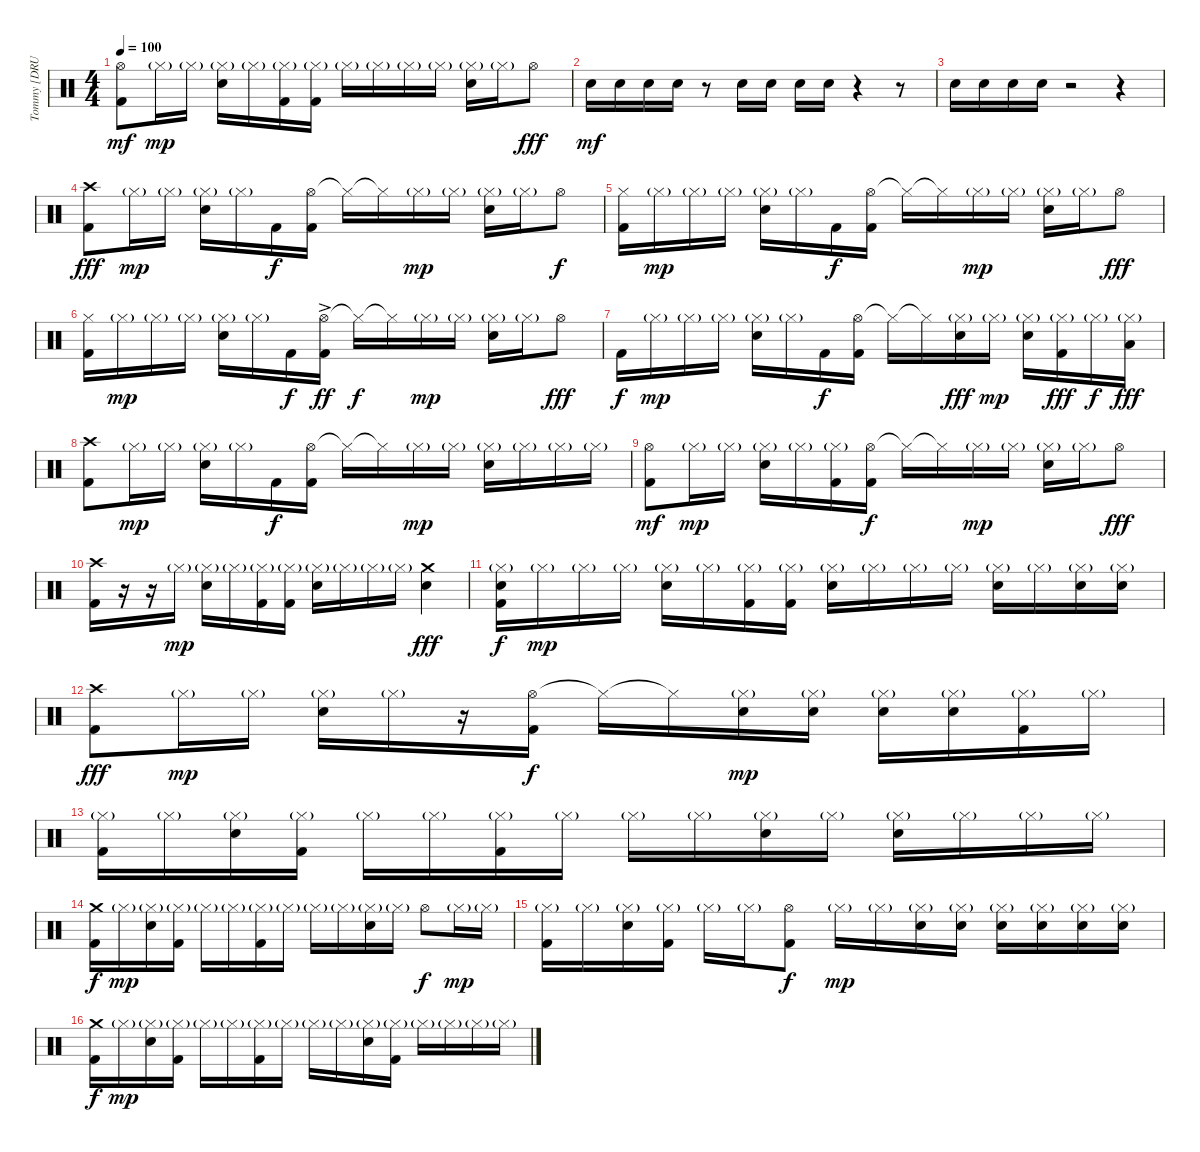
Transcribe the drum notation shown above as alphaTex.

\track ("Tommy [DRUMS]" "Tommy [DRU") {instrument percussion}
\staff {score}
\articulation defaults
\ts (4 4)
\tempo 100
\clef neutral
\ks c
("Hi-Hat (open)" "Kick (hit) 2").8{dy mf} "Hi-Hat (closed)"{g}.16{dy mp} "Hi-Hat (closed)"{g}.16 ("Hi-Hat (closed)"{g} "Snare (hit) 2").16 "Hi-Hat (closed)"{g}.16 ("Hi-Hat (closed)"{g} "Kick (hit) 2").16 ("Hi-Hat (closed)"{g} "Kick (hit) 2").16 "Hi-Hat (closed)"{g}.16 "Hi-Hat (closed)"{g}.16 "Hi-Hat (closed)"{g}.16 "Hi-Hat (closed)"{g}.16 ("Hi-Hat (closed)"{g} "Snare (hit) 2").16 "Hi-Hat (closed)"{g}.16 "Hi-Hat (open)".8{dy fff} |
"Snare (hit) 2".16{dy mf} "Snare (hit) 2".16 "Snare (hit) 2".16 "Snare (hit) 2".16 r.8 "Snare (hit) 2".16 "Snare (hit) 2".16 "Snare (hit) 2".16 "Snare (hit) 2".16 r.4 r.8 |
"Snare (hit) 2".16 "Snare (hit) 2".16 "Snare (hit) 2".16 "Snare (hit) 2".16 r.2 r.4 |
("Crash high (hit)" "Kick (hit) 2").8{dy fff} "Hi-Hat (closed)"{g}.16{dy mp} "Hi-Hat (closed)"{g}.16 ("Hi-Hat (closed)"{g} "Snare (hit) 2").16 "Hi-Hat (closed)"{g}.16 "Kick (hit) 2".16{dy f} ("Hi-Hat (open)" "Kick (hit) 2").16 "Hi-Hat (closed)"{t}.16 "Hi-Hat (closed)"{t}.16 "Hi-Hat (closed)"{g}.16{dy mp} "Hi-Hat (closed)"{g}.16 ("Hi-Hat (closed)"{g} "Snare (hit) 2").16 "Hi-Hat (closed)"{g}.16 "Hi-Hat (open)".8{dy f} |
("Hi-Hat (closed)" "Kick (hit) 2").16 "Hi-Hat (closed)"{g}.16{dy mp} "Hi-Hat (closed)"{g}.16 "Hi-Hat (closed)"{g}.16 ("Hi-Hat (closed)"{g} "Snare (hit) 2").16 "Hi-Hat (closed)"{g}.16 "Kick (hit) 2".16{dy f} ("Hi-Hat (open)" "Kick (hit) 2").16 "Hi-Hat (closed)"{t}.16 "Hi-Hat (closed)"{t}.16 "Hi-Hat (closed)"{g}.16{dy mp} "Hi-Hat (closed)"{g}.16 ("Hi-Hat (closed)"{g} "Snare (hit) 2").16 "Hi-Hat (closed)"{g}.16 "Hi-Hat (open)".8{dy fff} |
("Hi-Hat (closed)" "Kick (hit) 2").16 "Hi-Hat (closed)"{g}.16{dy mp} "Hi-Hat (closed)"{g}.16 "Hi-Hat (closed)"{g}.16 ("Hi-Hat (closed)"{g} "Snare (hit) 2").16 "Hi-Hat (closed)"{g}.16 "Kick (hit) 2".16{dy f} ("Hi-Hat (open)"{ac} "Kick (hit) 2").16{dy ff} "Hi-Hat (closed)"{t}.16{dy f} "Hi-Hat (closed)"{t}.16 "Hi-Hat (closed)"{g}.16{dy mp} "Hi-Hat (closed)"{g}.16 ("Hi-Hat (closed)"{g} "Snare (hit) 2").16 "Hi-Hat (closed)"{g}.16 "Hi-Hat (open)".8{dy fff} |
"Kick (hit) 2".16{dy f} "Hi-Hat (closed)"{g}.16{dy mp} "Hi-Hat (closed)"{g}.16 "Hi-Hat (closed)"{g}.16 ("Hi-Hat (closed)"{g} "Snare (hit) 2").16 "Hi-Hat (closed)"{g}.16 "Kick (hit) 2".16{dy f} ("Hi-Hat (open)" "Kick (hit) 2").16 "Hi-Hat (closed)"{t}.16 "Hi-Hat (closed)"{t}.16 ("Hi-Hat (closed)"{g} "Snare (hit) 2").16{dy fff} "Hi-Hat (closed)"{g}.16{dy mp} ("Hi-Hat (closed)"{g} "Snare (hit) 2").16 ("Hi-Hat (closed)"{g} "Kick (hit) 2").16{dy fff} "Hi-Hat (closed)"{g}.16{dy f} ("Hi-Hat (closed)"{g} "Low Tom (hit)").16{dy fff} |
("Crash high (hit)" "Kick (hit) 2").8 "Hi-Hat (closed)"{g}.16{dy mp} "Hi-Hat (closed)"{g}.16 ("Hi-Hat (closed)"{g} "Snare (hit) 2").16 "Hi-Hat (closed)"{g}.16 "Kick (hit) 2".16{dy f} ("Hi-Hat (open)" "Kick (hit) 2").16 "Hi-Hat (closed)"{t}.16 "Hi-Hat (closed)"{t}.16 "Hi-Hat (closed)"{g}.16{dy mp} "Hi-Hat (closed)"{g}.16 ("Hi-Hat (closed)"{g} "Snare (hit) 2").16 "Hi-Hat (closed)"{g}.16 "Hi-Hat (closed)"{g}.16 "Hi-Hat (closed)"{g}.16 |
("Hi-Hat (open)" "Kick (hit) 2").8{dy mf} "Hi-Hat (closed)"{g}.16{dy mp} "Hi-Hat (closed)"{g}.16 ("Hi-Hat (closed)"{g} "Snare (hit) 2").16 "Hi-Hat (closed)"{g}.16 ("Hi-Hat (closed)"{g} "Kick (hit) 2").16 ("Hi-Hat (open)" "Kick (hit) 2").16{dy f} "Hi-Hat (closed)"{t}.16 "Hi-Hat (closed)"{t}.16 "Hi-Hat (closed)"{g}.16{dy mp} "Hi-Hat (closed)"{g}.16 ("Hi-Hat (closed)"{g} "Snare (hit) 2").16 "Hi-Hat (closed)"{g}.16 "Hi-Hat (open)".8{dy fff} |
("Crash high (hit)" "Kick (hit) 2").16 r.16 r.16 "Hi-Hat (closed)"{g}.16{dy mp} ("Hi-Hat (closed)"{g} "Snare (hit) 2").16 "Hi-Hat (closed)"{g}.16 ("Hi-Hat (closed)"{g} "Kick (hit) 2").16 ("Hi-Hat (closed)"{g} "Kick (hit) 2").16 ("Hi-Hat (closed)"{g} "Snare (hit) 2").16 "Hi-Hat (closed)"{g}.16 "Hi-Hat (closed)"{g}.16 "Hi-Hat (closed)"{g}.16 ("Crash medium (hit)" "Snare (hit) 2").4{dy fff} |
("Hi-Hat (closed)"{g} "Snare (hit) 2" "Kick (hit) 2").16{dy f} "Hi-Hat (closed)"{g}.16{dy mp} "Hi-Hat (closed)"{g}.16 "Hi-Hat (closed)"{g}.16 ("Hi-Hat (closed)"{g} "Snare (hit) 2").16 "Hi-Hat (closed)"{g}.16 ("Hi-Hat (closed)"{g} "Kick (hit) 2").16 ("Hi-Hat (closed)"{g} "Kick (hit) 2").16 ("Hi-Hat (closed)"{g} "Snare (hit) 2").16 "Hi-Hat (closed)"{g}.16 "Hi-Hat (closed)"{g}.16 "Hi-Hat (closed)"{g}.16 ("Hi-Hat (closed)"{g} "Snare (hit) 2").16 "Hi-Hat (closed)"{g}.16 ("Hi-Hat (closed)"{g} "Snare (hit) 2").16 ("Hi-Hat (closed)"{g} "Snare (hit) 2").16 |
("Crash high (hit)" "Kick (hit) 2").8{dy fff} "Hi-Hat (closed)"{g}.16{dy mp} "Hi-Hat (closed)"{g}.16 ("Hi-Hat (closed)"{g} "Snare (hit) 2").16 "Hi-Hat (closed)"{g}.16 r.16 ("Hi-Hat (open)" "Kick (hit) 2").16{dy f} "Hi-Hat (closed)"{t}.16 "Hi-Hat (closed)"{t}.16 ("Hi-Hat (closed)"{g} "Snare (hit) 2").16{dy mp} ("Hi-Hat (closed)"{g} "Snare (hit) 2").16 ("Hi-Hat (closed)"{g} "Snare (hit) 2").16 ("Hi-Hat (closed)"{g} "Snare (hit) 2").16 ("Hi-Hat (closed)"{g} "Kick (hit) 2").16 "Hi-Hat (closed)"{g}.16 |
("Hi-Hat (closed)"{g} "Kick (hit) 2").16 "Hi-Hat (closed)"{g}.16 ("Hi-Hat (closed)"{g} "Snare (hit) 2").16 ("Hi-Hat (closed)"{g} "Kick (hit) 2").16 "Hi-Hat (closed)"{g}.16 "Hi-Hat (closed)"{g}.16 ("Hi-Hat (closed)"{g} "Kick (hit) 2").16 "Hi-Hat (closed)"{g}.16 "Hi-Hat (closed)"{g}.16 "Hi-Hat (closed)"{g}.16 ("Hi-Hat (closed)"{g} "Snare (hit) 2").16 "Hi-Hat (closed)"{g}.16 ("Hi-Hat (closed)"{g} "Snare (hit) 2").16 "Hi-Hat (closed)"{g}.16 "Hi-Hat (closed)"{g}.16 "Hi-Hat (closed)"{g}.16 |
("Crash medium (hit)" "Kick (hit) 2").16{dy f} "Hi-Hat (closed)"{g}.16{dy mp} ("Hi-Hat (closed)"{g} "Snare (hit) 2").16 ("Hi-Hat (closed)"{g} "Kick (hit) 2").16 "Hi-Hat (closed)"{g}.16 "Hi-Hat (closed)"{g}.16 ("Hi-Hat (closed)"{g} "Kick (hit) 2").16 "Hi-Hat (closed)"{g}.16 "Hi-Hat (closed)"{g}.16 "Hi-Hat (closed)"{g}.16 ("Hi-Hat (closed)"{g} "Snare (hit) 2").16 "Hi-Hat (closed)"{g}.16 "Hi-Hat (open)".8{dy f} "Hi-Hat (closed)"{g}.16{dy mp} "Hi-Hat (closed)"{g}.16 |
("Hi-Hat (closed)"{g} "Kick (hit) 2").16 "Hi-Hat (closed)"{g}.16 ("Hi-Hat (closed)"{g} "Snare (hit) 2").16 ("Hi-Hat (closed)"{g} "Kick (hit) 2").16 "Hi-Hat (closed)"{g}.16 "Hi-Hat (closed)"{g}.16 ("Hi-Hat (open)" "Kick (hit) 2").8{dy f} "Hi-Hat (closed)"{g}.16{dy mp} "Hi-Hat (closed)"{g}.16 ("Hi-Hat (closed)"{g} "Snare (hit) 2").16 ("Hi-Hat (closed)"{g} "Snare (hit) 2").16 ("Hi-Hat (closed)"{g} "Snare (hit) 2").16 ("Hi-Hat (closed)"{g} "Snare (hit) 2").16 ("Hi-Hat (closed)"{g} "Snare (hit) 2").16 ("Hi-Hat (closed)"{g} "Snare (hit) 2").16 |
("Crash medium (hit)" "Kick (hit) 2").16{dy f} "Hi-Hat (closed)"{g}.16{dy mp} ("Hi-Hat (closed)"{g} "Snare (hit) 2").16 ("Hi-Hat (closed)"{g} "Kick (hit) 2").16 "Hi-Hat (closed)"{g}.16 "Hi-Hat (closed)"{g}.16 ("Hi-Hat (closed)"{g} "Kick (hit) 2").16 "Hi-Hat (closed)"{g}.16 "Hi-Hat (closed)"{g}.16 "Hi-Hat (closed)"{g}.16 ("Hi-Hat (closed)"{g} "Snare (hit) 2").16 ("Hi-Hat (closed)"{g} "Kick (hit) 2").16 "Hi-Hat (closed)"{g}.16 "Hi-Hat (closed)"{g}.16 "Hi-Hat (closed)"{g}.16 "Hi-Hat (closed)"{g}.16
